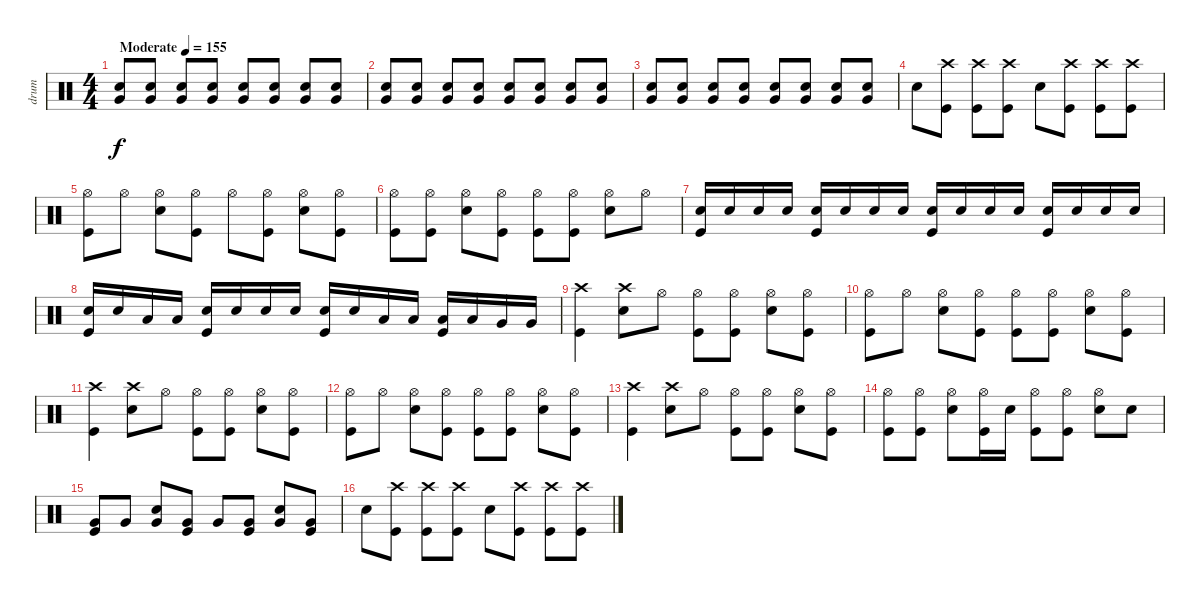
\track ("drum" "drum") {instrument percussion}
\staff {score}
\articulation defaults
\ts (4 4)
\tempo (155 "Moderate")
\clef neutral
\ks c
("Snare (hit) 2" "Very Low Tom (hit)").8{dy f} ("Snare (hit) 2" "Very Low Tom (hit)").8 ("Snare (hit) 2" "Very Low Tom (hit)").8 ("Snare (hit) 2" "Very Low Tom (hit)").8 ("Snare (hit) 2" "Very Low Tom (hit)").8 ("Snare (hit) 2" "Very Low Tom (hit)").8 ("Snare (hit) 2" "Very Low Tom (hit)").8 ("Snare (hit) 2" "Very Low Tom (hit)").8 |
("Snare (hit) 2" "Very Low Tom (hit)").8 ("Snare (hit) 2" "Very Low Tom (hit)").8 ("Snare (hit) 2" "Very Low Tom (hit)").8 ("Snare (hit) 2" "Very Low Tom (hit)").8 ("Snare (hit) 2" "Very Low Tom (hit)").8 ("Snare (hit) 2" "Very Low Tom (hit)").8 ("Snare (hit) 2" "Very Low Tom (hit)").8 ("Snare (hit) 2" "Very Low Tom (hit)").8 |
("Snare (hit) 2" "Very Low Tom (hit)").8 ("Snare (hit) 2" "Very Low Tom (hit)").8 ("Snare (hit) 2" "Very Low Tom (hit)").8 ("Snare (hit) 2" "Very Low Tom (hit)").8 ("Snare (hit) 2" "Very Low Tom (hit)").8 ("Snare (hit) 2" "Very Low Tom (hit)").8 ("Snare (hit) 2" "Very Low Tom (hit)").8 ("Snare (hit) 2" "Very Low Tom (hit)").8 |
"Snare (hit) 2".8 ("Crash high (hit)" "Kick (hit)").8 ("Crash high (hit)" "Kick (hit)").8 ("Crash high (hit)" "Kick (hit)").8 "Snare (hit) 2".8 ("Crash high (hit)" "Kick (hit)").8 ("Crash high (hit)" "Kick (hit)").8 ("Crash high (hit)" "Kick (hit)").8 |
("Hi-Hat (open)" "Kick (hit)").8 "Hi-Hat (open)".8 ("Hi-Hat (open)" "Snare (hit) 2").8 ("Hi-Hat (open)" "Kick (hit)").8 "Hi-Hat (open)".8 ("Hi-Hat (open)" "Kick (hit)").8 ("Hi-Hat (open)" "Snare (hit) 2").8 ("Hi-Hat (open)" "Kick (hit)").8 |
("Hi-Hat (open)" "Kick (hit)").8 ("Hi-Hat (open)" "Kick (hit)").8 ("Hi-Hat (open)" "Snare (hit) 2").8 ("Hi-Hat (open)" "Kick (hit)").8 ("Hi-Hat (open)" "Kick (hit)").8 ("Hi-Hat (open)" "Kick (hit)").8 ("Hi-Hat (open)" "Snare (hit) 2").8 "Hi-Hat (open)".8 |
("Snare (hit) 2" "Kick (hit)").16 "Snare (hit) 2".16 "Snare (hit) 2".16 "Snare (hit) 2".16 ("Snare (hit) 2" "Kick (hit)").16 "Snare (hit) 2".16 "Snare (hit) 2".16 "Snare (hit) 2".16 ("Snare (hit) 2" "Kick (hit)").16 "Snare (hit) 2".16 "Snare (hit) 2".16 "Snare (hit) 2".16 ("Snare (hit) 2" "Kick (hit)").16 "Snare (hit) 2".16 "Snare (hit) 2".16 "Snare (hit) 2".16 |
("Snare (hit) 2" "Kick (hit)").16 "Snare (hit) 2".16 "Low Tom (hit)".16 "Low Tom (hit)".16 ("Snare (hit) 2" "Kick (hit)").16 "Snare (hit) 2".16 "Snare (hit) 2".16 "Snare (hit) 2".16 ("Snare (hit) 2" "Kick (hit)").16 "Snare (hit) 2".16 "Low Tom (hit)".16 "Low Tom (hit)".16 ("Low Tom (hit)" "Kick (hit)").16 "Low Tom (hit)".16 "Very Low Tom (hit)".16 "Very Low Tom (hit)".16 |
("Crash high (hit)" "Kick (hit)").4 ("Crash high (hit)" "Snare (hit) 2").8 "Hi-Hat (open)".8 ("Hi-Hat (open)" "Kick (hit)").8 ("Hi-Hat (open)" "Kick (hit)").8 ("Hi-Hat (open)" "Snare (hit) 2").8 ("Hi-Hat (open)" "Kick (hit)").8 |
("Hi-Hat (open)" "Kick (hit)").8 "Hi-Hat (open)".8 ("Hi-Hat (open)" "Snare (hit) 2").8 ("Hi-Hat (open)" "Kick (hit)").8 ("Hi-Hat (open)" "Kick (hit)").8 ("Hi-Hat (open)" "Kick (hit)").8 ("Hi-Hat (open)" "Snare (hit) 2").8 ("Hi-Hat (open)" "Kick (hit)").8 |
("Crash high (hit)" "Kick (hit)").4 ("Crash high (hit)" "Snare (hit) 2").8 "Hi-Hat (open)".8 ("Hi-Hat (open)" "Kick (hit)").8 ("Hi-Hat (open)" "Kick (hit)").8 ("Hi-Hat (open)" "Snare (hit) 2").8 ("Hi-Hat (open)" "Kick (hit)").8 |
("Hi-Hat (open)" "Kick (hit)").8 "Hi-Hat (open)".8 ("Hi-Hat (open)" "Snare (hit) 2").8 ("Hi-Hat (open)" "Kick (hit)").8 ("Hi-Hat (open)" "Kick (hit)").8 ("Hi-Hat (open)" "Kick (hit)").8 ("Hi-Hat (open)" "Snare (hit) 2").8 ("Hi-Hat (open)" "Kick (hit)").8 |
("Crash high (hit)" "Kick (hit)").4 ("Crash high (hit)" "Snare (hit) 2").8 "Hi-Hat (open)".8 ("Hi-Hat (open)" "Kick (hit)").8 ("Hi-Hat (open)" "Kick (hit)").8 ("Hi-Hat (open)" "Snare (hit) 2").8 ("Hi-Hat (open)" "Kick (hit)").8 |
("Hi-Hat (open)" "Kick (hit)").8 ("Hi-Hat (open)" "Kick (hit)").8 ("Hi-Hat (open)" "Snare (hit) 2").8 ("Hi-Hat (open)" "Kick (hit)").16 "Snare (hit) 2".16 ("Hi-Hat (open)" "Kick (hit)").8 ("Hi-Hat (open)" "Kick (hit)").8 ("Hi-Hat (open)" "Snare (hit) 2").8 "Snare (hit) 2".8 |
("Very Low Tom (hit)" "Kick (hit)").8 "Very Low Tom (hit)".8 ("Snare (hit) 2" "Very Low Tom (hit)").8 ("Very Low Tom (hit)" "Kick (hit)").8 "Very Low Tom (hit)".8 ("Very Low Tom (hit)" "Kick (hit)").8 ("Snare (hit) 2" "Very Low Tom (hit)").8 ("Very Low Tom (hit)" "Kick (hit)").8 |
"Snare (hit) 2".8 ("Crash high (hit)" "Kick (hit)").8 ("Crash high (hit)" "Kick (hit)").8 ("Crash high (hit)" "Kick (hit)").8 "Snare (hit) 2".8 ("Crash high (hit)" "Kick (hit)").8 ("Crash high (hit)" "Kick (hit)").8 ("Crash high (hit)" "Kick (hit)").8
